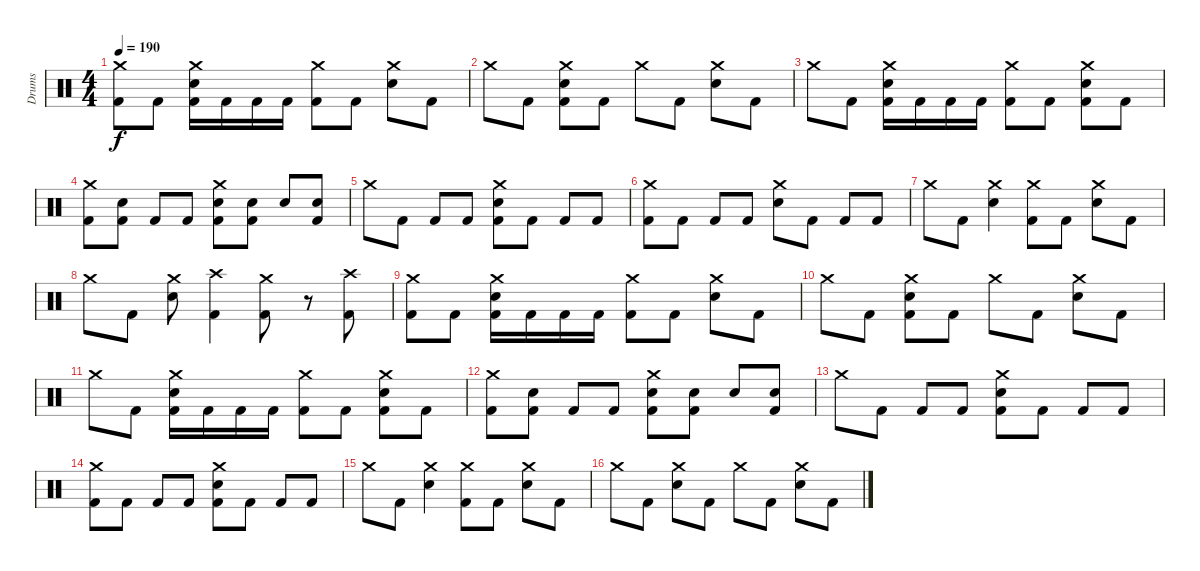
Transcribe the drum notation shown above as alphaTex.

\track ("Drums" "Drums") {instrument percussion}
\staff {score}
\articulation defaults
\ts (4 4)
\tempo 190
\clef neutral
\ks c
("Crash medium (hit)" "Kick (hit) 2").8{dy f} "Kick (hit) 2".8 ("Crash medium (hit)" "Snare (hit) 2" "Kick (hit) 2").16 "Kick (hit) 2".16 "Kick (hit) 2".16 "Kick (hit) 2".16 ("Crash medium (hit)" "Kick (hit) 2").8 "Kick (hit) 2".8 ("Crash medium (hit)" "Snare (hit) 2").8 "Kick (hit) 2".8 |
"Crash medium (hit)".8 "Kick (hit) 2".8 ("Crash medium (hit)" "Snare (hit) 2" "Kick (hit) 2").8 "Kick (hit) 2".8 "Crash medium (hit)".8 "Kick (hit) 2".8 ("Crash medium (hit)" "Snare (hit) 2").8 "Kick (hit) 2".8 |
"Crash medium (hit)".8 "Kick (hit) 2".8 ("Crash medium (hit)" "Snare (hit) 2" "Kick (hit) 2").16 "Kick (hit) 2".16 "Kick (hit) 2".16 "Kick (hit) 2".16 ("Crash medium (hit)" "Kick (hit) 2").8 "Kick (hit) 2".8 ("Crash medium (hit)" "Snare (hit) 2" "Kick (hit) 2").8 "Kick (hit) 2".8 |
("Crash medium (hit)" "Kick (hit) 2").8 ("Snare (hit) 2" "Kick (hit) 2").8 "Kick (hit) 2".8 "Kick (hit) 2".8 ("Crash medium (hit)" "Snare (hit) 2" "Kick (hit) 2").8 ("Snare (hit) 2" "Kick (hit) 2").8 "Snare (hit) 2".8 ("Snare (hit) 2" "Kick (hit) 2").8 |
"Crash medium (hit)".8 "Kick (hit) 2".8 "Kick (hit) 2".8 "Kick (hit) 2".8 ("Crash medium (hit)" "Snare (hit) 2" "Kick (hit) 2").8 "Kick (hit) 2".8 "Kick (hit) 2".8 "Kick (hit) 2".8 |
("Crash medium (hit)" "Kick (hit) 2").8 "Kick (hit) 2".8 "Kick (hit) 2".8 "Kick (hit) 2".8 ("Crash medium (hit)" "Snare (hit) 2").8 "Kick (hit) 2".8 "Kick (hit) 2".8 "Kick (hit) 2".8 |
"Crash medium (hit)".8 "Kick (hit) 2".8 ("Crash medium (hit)" "Snare (hit) 2").4 ("Crash medium (hit)" "Kick (hit) 2").8 "Kick (hit) 2".8 ("Crash medium (hit)" "Snare (hit) 2").8 "Kick (hit) 2".8 |
"Crash medium (hit)".8 "Kick (hit) 2".8 ("Crash medium (hit)" "Snare (hit) 2").8 ("Crash high (hit)" "Kick (hit) 2").4 ("Crash medium (hit)" "Kick (hit) 2").8 r.8 ("Crash high (hit)" "Kick (hit) 2").8 |
("Crash medium (hit)" "Kick (hit) 2").8 "Kick (hit) 2".8 ("Crash medium (hit)" "Snare (hit) 2" "Kick (hit) 2").16 "Kick (hit) 2".16 "Kick (hit) 2".16 "Kick (hit) 2".16 ("Crash medium (hit)" "Kick (hit) 2").8 "Kick (hit) 2".8 ("Crash medium (hit)" "Snare (hit) 2").8 "Kick (hit) 2".8 |
"Crash medium (hit)".8 "Kick (hit) 2".8 ("Crash medium (hit)" "Snare (hit) 2" "Kick (hit) 2").8 "Kick (hit) 2".8 "Crash medium (hit)".8 "Kick (hit) 2".8 ("Crash medium (hit)" "Snare (hit) 2").8 "Kick (hit) 2".8 |
"Crash medium (hit)".8 "Kick (hit) 2".8 ("Crash medium (hit)" "Snare (hit) 2" "Kick (hit) 2").16 "Kick (hit) 2".16 "Kick (hit) 2".16 "Kick (hit) 2".16 ("Crash medium (hit)" "Kick (hit) 2").8 "Kick (hit) 2".8 ("Crash medium (hit)" "Snare (hit) 2" "Kick (hit) 2").8 "Kick (hit) 2".8 |
("Crash medium (hit)" "Kick (hit) 2").8 ("Snare (hit) 2" "Kick (hit) 2").8 "Kick (hit) 2".8 "Kick (hit) 2".8 ("Crash medium (hit)" "Snare (hit) 2" "Kick (hit) 2").8 ("Snare (hit) 2" "Kick (hit) 2").8 "Snare (hit) 2".8 ("Snare (hit) 2" "Kick (hit) 2").8 |
"Crash medium (hit)".8 "Kick (hit) 2".8 "Kick (hit) 2".8 "Kick (hit) 2".8 ("Crash medium (hit)" "Snare (hit) 2" "Kick (hit) 2").8 "Kick (hit) 2".8 "Kick (hit) 2".8 "Kick (hit) 2".8 |
("Crash medium (hit)" "Kick (hit) 2").8 "Kick (hit) 2".8 "Kick (hit) 2".8 "Kick (hit) 2".8 ("Crash medium (hit)" "Snare (hit) 2" "Kick (hit) 2").8 "Kick (hit) 2".8 "Kick (hit) 2".8 "Kick (hit) 2".8 |
"Crash medium (hit)".8 "Kick (hit) 2".8 ("Crash medium (hit)" "Snare (hit) 2").4 ("Crash medium (hit)" "Kick (hit) 2").8 "Kick (hit) 2".8 ("Crash medium (hit)" "Snare (hit) 2").8 "Kick (hit) 2".8 |
"Crash medium (hit)".8 "Kick (hit) 2".8 ("Crash medium (hit)" "Snare (hit) 2").8 "Kick (hit) 2".8 "Crash medium (hit)".8 "Kick (hit) 2".8 ("Crash medium (hit)" "Snare (hit) 2").8 "Kick (hit) 2".8
